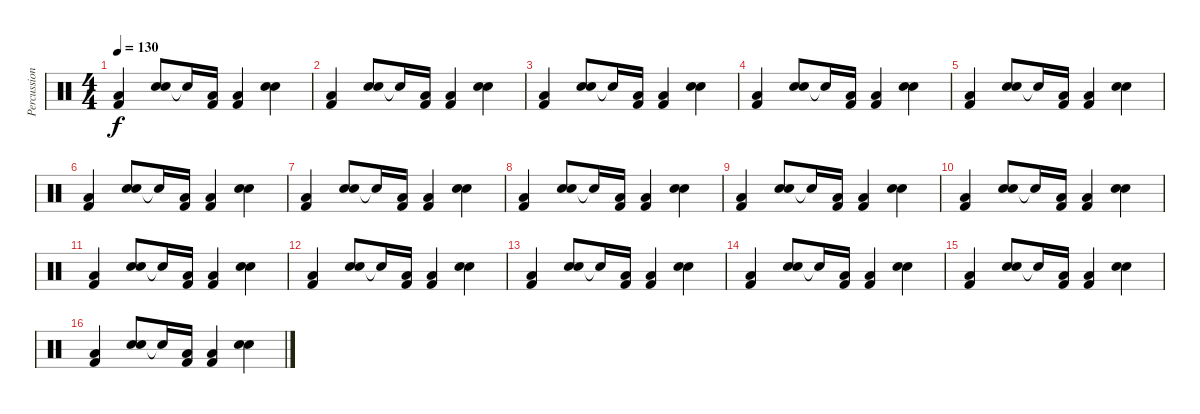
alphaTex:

\track ("Percussion" "Percussion") {instrument percussion}
\staff {score}
\articulation defaults
\ts (4 4)
\tempo 130
\clef neutral
\ks c
("Low Floor Tom (hit)" "Kick (hit) 2").4{dy f} ("Hand Clap (hit)" "Snare (hit) 2").8 "Snare (hit)"{t}.16 ("Low Floor Tom (hit)" "Kick (hit) 2").16 ("Low Floor Tom (hit)" "Kick (hit) 2").4 ("Hand Clap (hit)" "Snare (hit) 2").4 |
("Low Floor Tom (hit)" "Kick (hit) 2").4 ("Hand Clap (hit)" "Snare (hit) 2").8 "Snare (hit)"{t}.16 ("Low Floor Tom (hit)" "Kick (hit) 2").16 ("Low Floor Tom (hit)" "Kick (hit) 2").4 ("Hand Clap (hit)" "Snare (hit) 2").4 |
("Low Floor Tom (hit)" "Kick (hit) 2").4 ("Hand Clap (hit)" "Snare (hit) 2").8 "Snare (hit)"{t}.16 ("Low Floor Tom (hit)" "Kick (hit) 2").16 ("Low Floor Tom (hit)" "Kick (hit) 2").4 ("Hand Clap (hit)" "Snare (hit) 2").4 |
("Low Floor Tom (hit)" "Kick (hit) 2").4 ("Hand Clap (hit)" "Snare (hit) 2").8 "Snare (hit)"{t}.16 ("Low Floor Tom (hit)" "Kick (hit) 2").16 ("Low Floor Tom (hit)" "Kick (hit) 2").4 ("Hand Clap (hit)" "Snare (hit) 2").4 |
("Low Floor Tom (hit)" "Kick (hit) 2").4 ("Hand Clap (hit)" "Snare (hit) 2").8 "Snare (hit)"{t}.16 ("Low Floor Tom (hit)" "Kick (hit) 2").16 ("Low Floor Tom (hit)" "Kick (hit) 2").4 ("Hand Clap (hit)" "Snare (hit) 2").4 |
("Low Floor Tom (hit)" "Kick (hit) 2").4 ("Hand Clap (hit)" "Snare (hit) 2").8 "Snare (hit)"{t}.16 ("Low Floor Tom (hit)" "Kick (hit) 2").16 ("Low Floor Tom (hit)" "Kick (hit) 2").4 ("Hand Clap (hit)" "Snare (hit) 2").4 |
("Low Floor Tom (hit)" "Kick (hit) 2").4 ("Hand Clap (hit)" "Snare (hit) 2").8 "Snare (hit)"{t}.16 ("Low Floor Tom (hit)" "Kick (hit) 2").16 ("Low Floor Tom (hit)" "Kick (hit) 2").4 ("Hand Clap (hit)" "Snare (hit) 2").4 |
("Low Floor Tom (hit)" "Kick (hit) 2").4 ("Hand Clap (hit)" "Snare (hit) 2").8 "Snare (hit)"{t}.16 ("Low Floor Tom (hit)" "Kick (hit) 2").16 ("Low Floor Tom (hit)" "Kick (hit) 2").4 ("Hand Clap (hit)" "Snare (hit) 2").4 |
("Low Floor Tom (hit)" "Kick (hit) 2").4 ("Hand Clap (hit)" "Snare (hit) 2").8 "Snare (hit)"{t}.16 ("Low Floor Tom (hit)" "Kick (hit) 2").16 ("Low Floor Tom (hit)" "Kick (hit) 2").4 ("Hand Clap (hit)" "Snare (hit) 2").4 |
("Low Floor Tom (hit)" "Kick (hit) 2").4 ("Hand Clap (hit)" "Snare (hit) 2").8 "Snare (hit)"{t}.16 ("Low Floor Tom (hit)" "Kick (hit) 2").16 ("Low Floor Tom (hit)" "Kick (hit) 2").4 ("Hand Clap (hit)" "Snare (hit) 2").4 |
("Low Floor Tom (hit)" "Kick (hit) 2").4 ("Hand Clap (hit)" "Snare (hit) 2").8 "Snare (hit)"{t}.16 ("Low Floor Tom (hit)" "Kick (hit) 2").16 ("Low Floor Tom (hit)" "Kick (hit) 2").4 ("Hand Clap (hit)" "Snare (hit) 2").4 |
("Low Floor Tom (hit)" "Kick (hit) 2").4 ("Hand Clap (hit)" "Snare (hit) 2").8 "Snare (hit)"{t}.16 ("Low Floor Tom (hit)" "Kick (hit) 2").16 ("Low Floor Tom (hit)" "Kick (hit) 2").4 ("Hand Clap (hit)" "Snare (hit) 2").4 |
("Low Floor Tom (hit)" "Kick (hit) 2").4 ("Hand Clap (hit)" "Snare (hit) 2").8 "Snare (hit)"{t}.16 ("Low Floor Tom (hit)" "Kick (hit) 2").16 ("Low Floor Tom (hit)" "Kick (hit) 2").4 ("Hand Clap (hit)" "Snare (hit) 2").4 |
("Low Floor Tom (hit)" "Kick (hit) 2").4 ("Hand Clap (hit)" "Snare (hit) 2").8 "Snare (hit)"{t}.16 ("Low Floor Tom (hit)" "Kick (hit) 2").16 ("Low Floor Tom (hit)" "Kick (hit) 2").4 ("Hand Clap (hit)" "Snare (hit) 2").4 |
("Low Floor Tom (hit)" "Kick (hit) 2").4 ("Hand Clap (hit)" "Snare (hit) 2").8 "Snare (hit)"{t}.16 ("Low Floor Tom (hit)" "Kick (hit) 2").16 ("Low Floor Tom (hit)" "Kick (hit) 2").4 ("Hand Clap (hit)" "Snare (hit) 2").4 |
("Low Floor Tom (hit)" "Kick (hit) 2").4 ("Hand Clap (hit)" "Snare (hit) 2").8 "Snare (hit)"{t}.16 ("Low Floor Tom (hit)" "Kick (hit) 2").16 ("Low Floor Tom (hit)" "Kick (hit) 2").4 ("Hand Clap (hit)" "Snare (hit) 2").4
